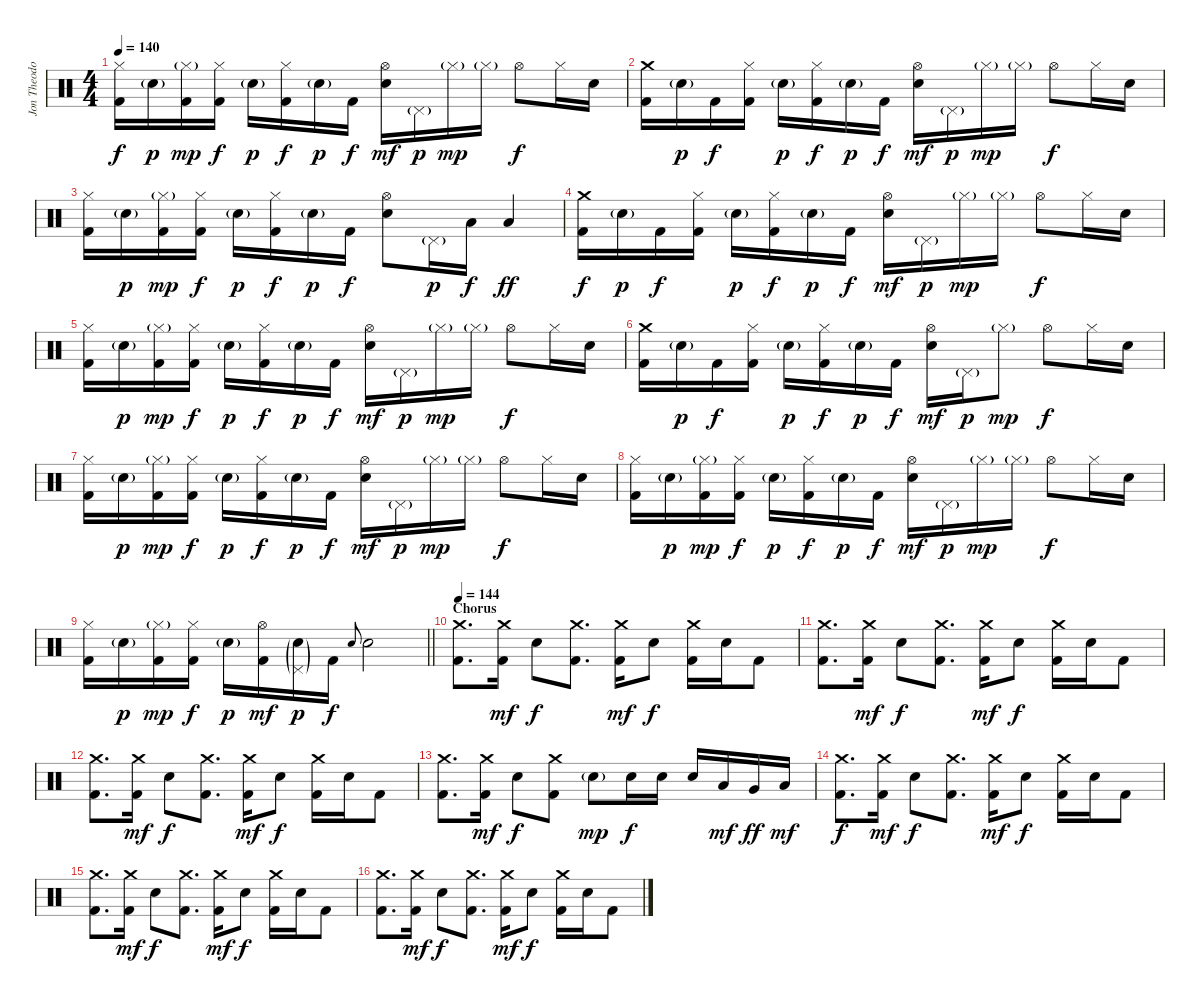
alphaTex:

\track ("Jon Theodore - Drums" "Jon Theodo") {instrument percussion}
\staff {score}
\articulation defaults
\ts (4 4)
\tempo 140
\clef neutral
\ks c
("Hi-Hat (closed)" "Kick (hit) 2").16{dy f} "Electric Snare (hit)"{g}.16{dy p} ("Hi-Hat (closed)"{g} "Kick (hit) 2").16{dy mp} ("Hi-Hat (closed)" "Kick (hit) 2").16{dy f} "Electric Snare (hit)"{g}.16{dy p} ("Hi-Hat (closed)" "Kick (hit) 2").16{dy f} "Electric Snare (hit)"{g}.16{dy p} "Kick (hit) 2".16{dy f} ("Hi-Hat (open)" "Electric Snare (hit)").16{dy mf} "Pedal Hi-Hat (hit)"{g}.16{dy p} "Hi-Hat (closed)"{g}.16{dy mp} "Hi-Hat (closed)"{g}.16 "Hi-Hat (open)".8{dy f} "Hi-Hat (closed)".16 "Electric Snare (hit)".16 |
("Crash medium (hit)" "Kick (hit) 2").16 "Electric Snare (hit)"{g}.16{dy p} "Kick (hit) 2".16{dy f} ("Hi-Hat (closed)" "Kick (hit) 2").16 "Electric Snare (hit)"{g}.16{dy p} ("Hi-Hat (closed)" "Kick (hit) 2").16{dy f} "Electric Snare (hit)"{g}.16{dy p} "Kick (hit) 2".16{dy f} ("Hi-Hat (open)" "Electric Snare (hit)").16{dy mf} "Pedal Hi-Hat (hit)"{g}.16{dy p} "Hi-Hat (closed)"{g}.16{dy mp} "Hi-Hat (closed)"{g}.16 "Hi-Hat (open)".8{dy f} "Hi-Hat (closed)".16 "Electric Snare (hit)".16 |
("Hi-Hat (closed)" "Kick (hit) 2").16 "Electric Snare (hit)"{g}.16{dy p} ("Hi-Hat (closed)"{g} "Kick (hit) 2").16{dy mp} ("Hi-Hat (closed)" "Kick (hit) 2").16{dy f} "Electric Snare (hit)"{g}.16{dy p} ("Hi-Hat (closed)" "Kick (hit) 2").16{dy f} "Electric Snare (hit)"{g}.16{dy p} "Kick (hit) 2".16{dy f} ("Hi-Hat (open)" "Electric Snare (hit)").8 "Pedal Hi-Hat (hit)"{g}.16{dy p} "Low Tom (hit)".16{dy f} "Low Tom (hit)".4{dy ff} |
("Crash medium (hit)" "Kick (hit) 2").16{dy f} "Electric Snare (hit)"{g}.16{dy p} "Kick (hit) 2".16{dy f} ("Hi-Hat (closed)" "Kick (hit) 2").16 "Electric Snare (hit)"{g}.16{dy p} ("Hi-Hat (closed)" "Kick (hit) 2").16{dy f} "Electric Snare (hit)"{g}.16{dy p} "Kick (hit) 2".16{dy f} ("Hi-Hat (open)" "Electric Snare (hit)").16{dy mf} "Pedal Hi-Hat (hit)"{g}.16{dy p} "Hi-Hat (closed)"{g}.16{dy mp} "Hi-Hat (closed)"{g}.16 "Hi-Hat (open)".8{dy f} "Hi-Hat (closed)".16 "Electric Snare (hit)".16 |
("Hi-Hat (closed)" "Kick (hit) 2").16 "Electric Snare (hit)"{g}.16{dy p} ("Hi-Hat (closed)"{g} "Kick (hit) 2").16{dy mp} ("Hi-Hat (closed)" "Kick (hit) 2").16{dy f} "Electric Snare (hit)"{g}.16{dy p} ("Hi-Hat (closed)" "Kick (hit) 2").16{dy f} "Electric Snare (hit)"{g}.16{dy p} "Kick (hit) 2".16{dy f} ("Hi-Hat (open)" "Electric Snare (hit)").16{dy mf} "Pedal Hi-Hat (hit)"{g}.16{dy p} "Hi-Hat (closed)"{g}.16{dy mp} "Hi-Hat (closed)"{g}.16 "Hi-Hat (open)".8{dy f} "Hi-Hat (closed)".16 "Electric Snare (hit)".16 |
("Crash medium (hit)" "Kick (hit) 2").16 "Electric Snare (hit)"{g}.16{dy p} "Kick (hit) 2".16{dy f} ("Hi-Hat (closed)" "Kick (hit) 2").16 "Electric Snare (hit)"{g}.16{dy p} ("Hi-Hat (closed)" "Kick (hit) 2").16{dy f} "Electric Snare (hit)"{g}.16{dy p} "Kick (hit) 2".16{dy f} ("Hi-Hat (open)" "Electric Snare (hit)").16{dy mf} "Pedal Hi-Hat (hit)"{g}.16{dy p} "Hi-Hat (closed)"{g}.8{dy mp} "Hi-Hat (open)".8{dy f} "Hi-Hat (closed)".16 "Electric Snare (hit)".16 |
("Hi-Hat (closed)" "Kick (hit) 2").16 "Electric Snare (hit)"{g}.16{dy p} ("Hi-Hat (closed)"{g} "Kick (hit) 2").16{dy mp} ("Hi-Hat (closed)" "Kick (hit) 2").16{dy f} "Electric Snare (hit)"{g}.16{dy p} ("Hi-Hat (closed)" "Kick (hit) 2").16{dy f} "Electric Snare (hit)"{g}.16{dy p} "Kick (hit) 2".16{dy f} ("Hi-Hat (open)" "Electric Snare (hit)").16{dy mf} "Pedal Hi-Hat (hit)"{g}.16{dy p} "Hi-Hat (closed)"{g}.16{dy mp} "Hi-Hat (closed)"{g}.16 "Hi-Hat (open)".8{dy f} "Hi-Hat (closed)".16 "Electric Snare (hit)".16 |
("Hi-Hat (closed)" "Kick (hit) 2").16 "Electric Snare (hit)"{g}.16{dy p} ("Hi-Hat (closed)"{g} "Kick (hit) 2").16{dy mp} ("Hi-Hat (closed)" "Kick (hit) 2").16{dy f} "Electric Snare (hit)"{g}.16{dy p} ("Hi-Hat (closed)" "Kick (hit) 2").16{dy f} "Electric Snare (hit)"{g}.16{dy p} "Kick (hit) 2".16{dy f} ("Hi-Hat (open)" "Electric Snare (hit)").16{dy mf} "Pedal Hi-Hat (hit)"{g}.16{dy p} "Hi-Hat (closed)"{g}.16{dy mp} "Hi-Hat (closed)"{g}.16 "Hi-Hat (open)".8{dy f} "Hi-Hat (closed)".16 "Electric Snare (hit)".16 |
\barLineRight lightlight
("Hi-Hat (closed)" "Kick (hit) 2").16 "Electric Snare (hit)"{g}.16{dy p} ("Hi-Hat (closed)"{g} "Kick (hit) 2").16{dy mp} ("Hi-Hat (closed)" "Kick (hit) 2").16{dy f} "Electric Snare (hit)"{g}.16{dy p} ("Hi-Hat (open)" "Kick (hit) 2").16{dy mf} ("Electric Snare (hit)"{g} "Pedal Hi-Hat (hit)"{g}).16{dy p} "Kick (hit) 2".16{dy f} "Electric Snare (hit)".8{gr onbeat} "Electric Snare (hit)".2 |
\section ("" "Chorus")
\tempo 144
("Crash medium (hit)" "Kick (hit) 2").8{d} ("Crash medium (hit)" "Kick (hit) 2").16{dy mf} "Electric Snare (hit)".8{dy f} ("Crash medium (hit)" "Kick (hit) 2").8{d} ("Crash medium (hit)" "Kick (hit) 2").16{dy mf} "Electric Snare (hit)".8{dy f} ("Crash medium (hit)" "Kick (hit) 2").16 "Electric Snare (hit)".16 "Kick (hit) 2".8 |
("Crash medium (hit)" "Kick (hit) 2").8{d} ("Crash medium (hit)" "Kick (hit) 2").16{dy mf} "Electric Snare (hit)".8{dy f} ("Crash medium (hit)" "Kick (hit) 2").8{d} ("Crash medium (hit)" "Kick (hit) 2").16{dy mf} "Electric Snare (hit)".8{dy f} ("Crash medium (hit)" "Kick (hit) 2").16 "Electric Snare (hit)".16 "Kick (hit) 2".8 |
("Crash medium (hit)" "Kick (hit) 2").8{d} ("Crash medium (hit)" "Kick (hit) 2").16{dy mf} "Electric Snare (hit)".8{dy f} ("Crash medium (hit)" "Kick (hit) 2").8{d} ("Crash medium (hit)" "Kick (hit) 2").16{dy mf} "Electric Snare (hit)".8{dy f} ("Crash medium (hit)" "Kick (hit) 2").16 "Electric Snare (hit)".16 "Kick (hit) 2".8 |
("Crash medium (hit)" "Kick (hit) 2").8{d} ("Crash medium (hit)" "Kick (hit) 2").16{dy mf} "Electric Snare (hit)".8{dy f} ("Crash medium (hit)" "Kick (hit) 2").8 "Electric Snare (hit)"{g}.8{dy mp} "Electric Snare (hit)".16{dy f} "Electric Snare (hit)".16 "Electric Snare (hit)".16 "Low Tom (hit)".16{dy mf} "Very Low Tom (hit)".16{dy ff} "Low Floor Tom (hit)".16{dy mf} |
("Crash medium (hit)" "Kick (hit) 2").8{d dy f} ("Crash medium (hit)" "Kick (hit) 2").16{dy mf} "Electric Snare (hit)".8{dy f} ("Crash medium (hit)" "Kick (hit) 2").8{d} ("Crash medium (hit)" "Kick (hit) 2").16{dy mf} "Electric Snare (hit)".8{dy f} ("Crash medium (hit)" "Kick (hit) 2").16 "Electric Snare (hit)".16 "Kick (hit) 2".8 |
("Crash medium (hit)" "Kick (hit) 2").8{d} ("Crash medium (hit)" "Kick (hit) 2").16{dy mf} "Electric Snare (hit)".8{dy f} ("Crash medium (hit)" "Kick (hit) 2").8{d} ("Crash medium (hit)" "Kick (hit) 2").16{dy mf} "Electric Snare (hit)".8{dy f} ("Crash medium (hit)" "Kick (hit) 2").16 "Electric Snare (hit)".16 "Kick (hit) 2".8 |
("Crash medium (hit)" "Kick (hit) 2").8{d} ("Crash medium (hit)" "Kick (hit) 2").16{dy mf} "Electric Snare (hit)".8{dy f} ("Crash medium (hit)" "Kick (hit) 2").8{d} ("Crash medium (hit)" "Kick (hit) 2").16{dy mf} "Electric Snare (hit)".8{dy f} ("Crash medium (hit)" "Kick (hit) 2").16 "Electric Snare (hit)".16 "Kick (hit) 2".8
